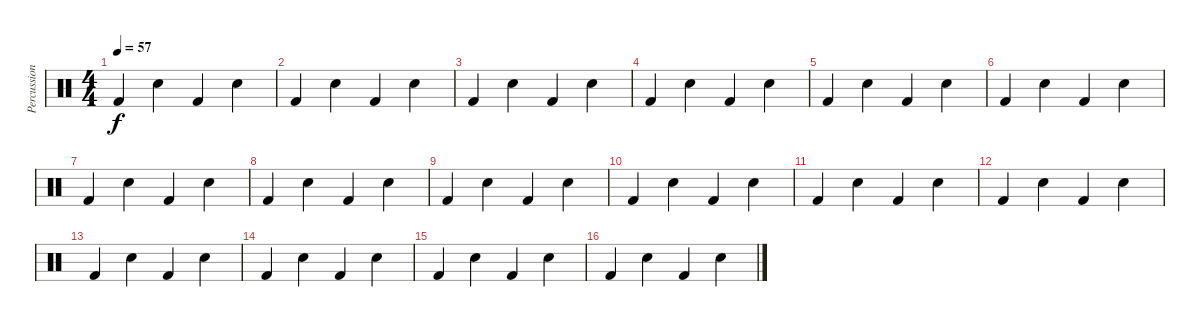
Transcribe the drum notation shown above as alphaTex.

\track ("Percussions" "Percussion") {instrument percussion}
\staff {score}
\articulation defaults
\ts (4 4)
\tempo 57
\clef neutral
\ks c "Kick (hit) 2".4{dy f} "Snare (hit) 2".4 "Kick (hit) 2".4 "Snare (hit) 2".4
|
"Kick (hit) 2".4 "Snare (hit) 2".4 "Kick (hit) 2".4 "Snare (hit) 2".4 |
"Kick (hit) 2".4 "Snare (hit) 2".4 "Kick (hit) 2".4 "Snare (hit) 2".4 |
"Kick (hit) 2".4 "Snare (hit) 2".4 "Kick (hit) 2".4 "Snare (hit) 2".4 |
"Kick (hit) 2".4 "Snare (hit) 2".4 "Kick (hit) 2".4 "Snare (hit) 2".4 |
"Kick (hit) 2".4 "Snare (hit) 2".4 "Kick (hit) 2".4 "Snare (hit) 2".4 |
"Kick (hit) 2".4 "Snare (hit) 2".4 "Kick (hit) 2".4 "Snare (hit) 2".4 |
"Kick (hit) 2".4 "Snare (hit) 2".4 "Kick (hit) 2".4 "Snare (hit) 2".4 |
"Kick (hit) 2".4 "Snare (hit) 2".4 "Kick (hit) 2".4 "Snare (hit) 2".4 |
"Kick (hit) 2".4 "Snare (hit) 2".4 "Kick (hit) 2".4 "Snare (hit) 2".4 |
"Kick (hit) 2".4 "Snare (hit) 2".4 "Kick (hit) 2".4 "Snare (hit) 2".4 |
"Kick (hit) 2".4 "Snare (hit) 2".4 "Kick (hit) 2".4 "Snare (hit) 2".4 |
"Kick (hit) 2".4 "Snare (hit) 2".4 "Kick (hit) 2".4 "Snare (hit) 2".4 |
"Kick (hit) 2".4 "Snare (hit) 2".4 "Kick (hit) 2".4 "Snare (hit) 2".4 |
"Kick (hit) 2".4 "Snare (hit) 2".4 "Kick (hit) 2".4 "Snare (hit) 2".4 |
"Kick (hit) 2".4 "Snare (hit) 2".4 "Kick (hit) 2".4 "Snare (hit) 2".4
